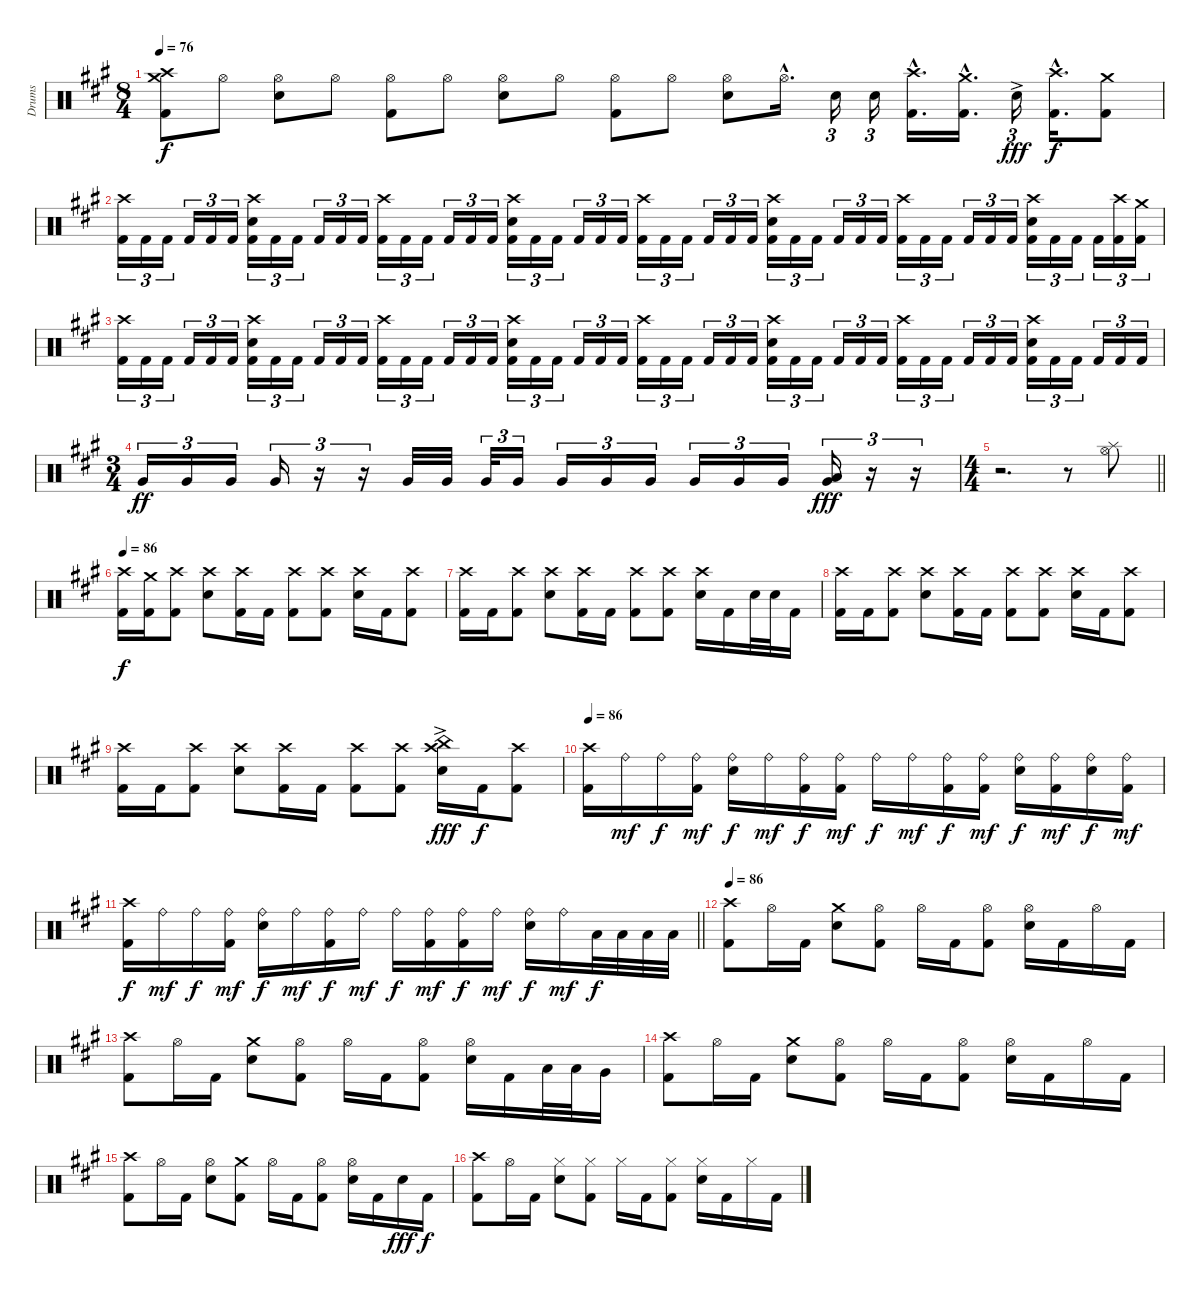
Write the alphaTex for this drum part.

\track ("Drums" "Drums") {instrument percussion}
\staff {score}
\articulation defaults
\ts (8 4)
\tempo 76
\clef neutral
\ks f#minor
("Crash high (hit)" "Crash medium (hit)" "Kick (hit) 2").8{dy f} "Hi-Hat (open)".8 ("Hi-Hat (open)" "Snare (hit) 2").8 "Hi-Hat (open)".8 ("Hi-Hat (open)" "Kick (hit) 2").8 "Hi-Hat (open)".8 ("Hi-Hat (open)" "Snare (hit) 2").8 "Hi-Hat (open)".8 ("Hi-Hat (open)" "Kick (hit) 2").8 "Hi-Hat (open)".8 ("Hi-Hat (open)" "Snare (hit) 2").8 "Hi-Hat (open)"{hac}.16{d} "Snare (hit) 2".16{tu (3 2)} "Snare (hit) 2".16{tu (3 2)} ("Crash high (hit)"{hac} "Kick (hit) 2"{hac}).16{d} ("Crash medium (hit)"{hac} "Kick (hit) 2"{hac}).16{d} "Snare (hit) 2"{ac}.16{tu (3 2) dy fff} ("Crash high (hit)"{hac} "Kick (hit) 2"{hac}).16{d dy f} ("Crash medium (hit)" "Kick (hit) 2").8 |
("Crash high (hit)" "Kick (hit) 2").16{tu (3 2)} "Kick (hit) 2".16{tu (3 2)} "Kick (hit) 2".16{tu (3 2)} "Kick (hit) 2".16{tu (3 2)} "Kick (hit) 2".16{tu (3 2)} "Kick (hit) 2".16{tu (3 2)} ("Crash high (hit)" "Snare (hit) 2" "Kick (hit) 2").16{tu (3 2)} "Kick (hit) 2".16{tu (3 2)} "Kick (hit) 2".16{tu (3 2)} "Kick (hit) 2".16{tu (3 2)} "Kick (hit) 2".16{tu (3 2)} "Kick (hit) 2".16{tu (3 2)} ("Crash high (hit)" "Kick (hit) 2").16{tu (3 2)} "Kick (hit) 2".16{tu (3 2)} "Kick (hit) 2".16{tu (3 2)} "Kick (hit) 2".16{tu (3 2)} "Kick (hit) 2".16{tu (3 2)} "Kick (hit) 2".16{tu (3 2)} ("Crash high (hit)" "Snare (hit) 2" "Kick (hit) 2").16{tu (3 2)} "Kick (hit) 2".16{tu (3 2)} "Kick (hit) 2".16{tu (3 2)} "Kick (hit) 2".16{tu (3 2)} "Kick (hit) 2".16{tu (3 2)} "Kick (hit) 2".16{tu (3 2)} ("Crash high (hit)" "Kick (hit) 2").16{tu (3 2)} "Kick (hit) 2".16{tu (3 2)} "Kick (hit) 2".16{tu (3 2)} "Kick (hit) 2".16{tu (3 2)} "Kick (hit) 2".16{tu (3 2)} "Kick (hit) 2".16{tu (3 2)} ("Crash high (hit)" "Snare (hit) 2" "Kick (hit) 2").16{tu (3 2)} "Kick (hit) 2".16{tu (3 2)} "Kick (hit) 2".16{tu (3 2)} "Kick (hit) 2".16{tu (3 2)} "Kick (hit) 2".16{tu (3 2)} "Kick (hit) 2".16{tu (3 2)} ("Crash high (hit)" "Kick (hit) 2").16{tu (3 2)} "Kick (hit) 2".16{tu (3 2)} "Kick (hit) 2".16{tu (3 2)} "Kick (hit) 2".16{tu (3 2)} "Kick (hit) 2".16{tu (3 2)} "Kick (hit) 2".16{tu (3 2)} ("Crash high (hit)" "Snare (hit) 2" "Kick (hit) 2").16{tu (3 2)} "Kick (hit) 2".16{tu (3 2)} "Kick (hit) 2".16{tu (3 2)} "Kick (hit) 2".16{tu (3 2)} ("Crash high (hit)" "Kick (hit) 2").16{tu (3 2)} ("Crash medium (hit)" "Kick (hit) 2").16{tu (3 2)} |
("Crash high (hit)" "Kick (hit) 2").16{tu (3 2)} "Kick (hit) 2".16{tu (3 2)} "Kick (hit) 2".16{tu (3 2)} "Kick (hit) 2".16{tu (3 2)} "Kick (hit) 2".16{tu (3 2)} "Kick (hit) 2".16{tu (3 2)} ("Crash high (hit)" "Snare (hit) 2" "Kick (hit) 2").16{tu (3 2)} "Kick (hit) 2".16{tu (3 2)} "Kick (hit) 2".16{tu (3 2)} "Kick (hit) 2".16{tu (3 2)} "Kick (hit) 2".16{tu (3 2)} "Kick (hit) 2".16{tu (3 2)} ("Crash high (hit)" "Kick (hit) 2").16{tu (3 2)} "Kick (hit) 2".16{tu (3 2)} "Kick (hit) 2".16{tu (3 2)} "Kick (hit) 2".16{tu (3 2)} "Kick (hit) 2".16{tu (3 2)} "Kick (hit) 2".16{tu (3 2)} ("Crash high (hit)" "Snare (hit) 2" "Kick (hit) 2").16{tu (3 2)} "Kick (hit) 2".16{tu (3 2)} "Kick (hit) 2".16{tu (3 2)} "Kick (hit) 2".16{tu (3 2)} "Kick (hit) 2".16{tu (3 2)} "Kick (hit) 2".16{tu (3 2)} ("Crash high (hit)" "Kick (hit) 2").16{tu (3 2)} "Kick (hit) 2".16{tu (3 2)} "Kick (hit) 2".16{tu (3 2)} "Kick (hit) 2".16{tu (3 2)} "Kick (hit) 2".16{tu (3 2)} "Kick (hit) 2".16{tu (3 2)} ("Crash high (hit)" "Snare (hit) 2" "Kick (hit) 2").16{tu (3 2)} "Kick (hit) 2".16{tu (3 2)} "Kick (hit) 2".16{tu (3 2)} "Kick (hit) 2".16{tu (3 2)} "Kick (hit) 2".16{tu (3 2)} "Kick (hit) 2".16{tu (3 2)} ("Crash high (hit)" "Kick (hit) 2").16{tu (3 2)} "Kick (hit) 2".16{tu (3 2)} "Kick (hit) 2".16{tu (3 2)} "Kick (hit) 2".16{tu (3 2)} "Kick (hit) 2".16{tu (3 2)} "Kick (hit) 2".16{tu (3 2)} ("Crash high (hit)" "Snare (hit) 2" "Kick (hit) 2").16{tu (3 2)} "Kick (hit) 2".16{tu (3 2)} "Kick (hit) 2".16{tu (3 2)} "Kick (hit) 2".16{tu (3 2)} "Kick (hit) 2".16{tu (3 2)} "Kick (hit) 2".16{tu (3 2)} |
\ts (3 4)
"Very Low Tom (hit)".16{tu (3 2) dy ff} "Very Low Tom (hit)".16{tu (3 2)} "Very Low Tom (hit)".16{tu (3 2)} "Very Low Tom (hit)".16{tu (3 2)} r.16{tu (3 2)} r.16{tu (3 2)} "Very Low Tom (hit)".32 "Very Low Tom (hit)".32 "Very Low Tom (hit)".32{tu (3 2)} "Very Low Tom (hit)".16{tu (3 2)} "Very Low Tom (hit)".16{tu (3 2)} "Very Low Tom (hit)".16{tu (3 2)} "Very Low Tom (hit)".16{tu (3 2)} "Very Low Tom (hit)".16{tu (3 2)} "Very Low Tom (hit)".16{tu (3 2)} "Very Low Tom (hit)".16{tu (3 2)} ("Very Low Tom (hit)" "Low Floor Tom (hit)").16{tu (3 2) dy fff} r.16{tu (3 2)} r.16{tu (3 2)} |
\ts (4 4)
\barLineRight lightlight
r.2{d} r.8 ("Hi-Hat (open)" "Splash (hit)").8 |
\tempo 86
("Crash high (hit)" "Kick (hit) 2").16{dy f} ("Crash medium (hit)" "Kick (hit) 2").16 ("Crash high (hit)" "Kick (hit) 2").8 ("Crash high (hit)" "Snare (hit) 2").8 ("Crash high (hit)" "Kick (hit) 2").16 "Kick (hit) 2".16 ("Crash high (hit)" "Kick (hit) 2").8 ("Crash high (hit)" "Kick (hit) 2").8 ("Crash high (hit)" "Snare (hit) 2").16 "Kick (hit) 2".16 ("Crash high (hit)" "Kick (hit) 2").8 |
("Crash high (hit)" "Kick (hit) 2").16 "Kick (hit) 2".16 ("Crash high (hit)" "Kick (hit) 2").8 ("Crash high (hit)" "Snare (hit) 2").8 ("Crash high (hit)" "Kick (hit) 2").16 "Kick (hit) 2".16 ("Crash high (hit)" "Kick (hit) 2").8 ("Crash high (hit)" "Kick (hit) 2").8 ("Crash high (hit)" "Snare (hit) 2").16 "Kick (hit) 2".16 "Snare (hit) 2".32 "Snare (hit) 2".32 "Kick (hit) 2".16 |
("Crash high (hit)" "Kick (hit) 2").16 "Kick (hit) 2".16 ("Crash high (hit)" "Kick (hit) 2").8 ("Crash high (hit)" "Snare (hit) 2").8 ("Crash high (hit)" "Kick (hit) 2").16 "Kick (hit) 2".16 ("Crash high (hit)" "Kick (hit) 2").8 ("Crash high (hit)" "Kick (hit) 2").8 ("Crash high (hit)" "Snare (hit) 2").16 "Kick (hit) 2".16 ("Crash high (hit)" "Kick (hit) 2").8 |
("Crash high (hit)" "Kick (hit) 2").16 "Kick (hit) 2".16 ("Crash high (hit)" "Kick (hit) 2").8 ("Crash high (hit)" "Snare (hit) 2").8 ("Crash high (hit)" "Kick (hit) 2").16 "Kick (hit) 2".16 ("Crash high (hit)" "Kick (hit) 2").8 ("Crash high (hit)" "Kick (hit) 2").8 ("China (hit)" "Crash high (hit)" "Snare (hit) 2"{ac}).16{dy fff} "Kick (hit) 2".16{dy f} ("Crash high (hit)" "Kick (hit) 2").8 |
\tempo 86
("Crash high (hit)" "Kick (hit) 2").16 "Ride (bell)".16{dy mf} "Ride (bell)".16{dy f} ("Ride (bell)" "Kick (hit) 2").16{dy mf} ("Ride (bell)" "Snare (hit) 2").16{dy f} "Ride (bell)".16{dy mf} ("Ride (bell)" "Kick (hit) 2").16{dy f} ("Ride (bell)" "Kick (hit) 2").16{dy mf} "Ride (bell)".16{dy f} "Ride (bell)".16{dy mf} ("Ride (bell)" "Kick (hit) 2").16{dy f} ("Ride (bell)" "Kick (hit) 2").16{dy mf} ("Ride (bell)" "Snare (hit) 2").16{dy f} ("Ride (bell)" "Kick (hit) 2").16{dy mf} ("Ride (bell)" "Snare (hit) 2").16{dy f} ("Ride (bell)" "Kick (hit) 2").16{dy mf} |
\barLineRight lightlight
("Crash high (hit)" "Kick (hit) 2").16{dy f} "Ride (bell)".16{dy mf} "Ride (bell)".16{dy f} ("Ride (bell)" "Kick (hit) 2").16{dy mf} ("Ride (bell)" "Snare (hit) 2").16{dy f} "Ride (bell)".16{dy mf} ("Ride (bell)" "Kick (hit) 2").16{dy f} "Ride (bell)".16{dy mf} "Ride (bell)".16{dy f} ("Ride (bell)" "Kick (hit) 2").16{dy mf} ("Ride (bell)" "Kick (hit) 2").16{dy f} "Ride (bell)".16{dy mf} ("Ride (bell)" "Snare (hit) 2").16{dy f} "Ride (bell)".16{dy mf} "Low Tom (hit)".32{dy f} "Low Tom (hit)".32 "Low Tom (hit)".32 "Low Tom (hit)".32 |
\tempo 86
("Crash high (hit)" "Kick (hit) 2").8 "Hi-Hat (open)".16 "Kick (hit) 2".16 ("Crash medium (hit)" "Snare (hit) 2").8 ("Hi-Hat (open)" "Kick (hit) 2").8 "Hi-Hat (open)".16 "Kick (hit) 2".16 ("Hi-Hat (open)" "Kick (hit) 2").8 ("Hi-Hat (open)" "Snare (hit) 2").16 "Kick (hit) 2".16 "Hi-Hat (open)".16 "Kick (hit) 2".16 |
("Crash high (hit)" "Kick (hit) 2").8 "Hi-Hat (open)".16 "Kick (hit) 2".16 ("Crash medium (hit)" "Snare (hit) 2").8 ("Hi-Hat (open)" "Kick (hit) 2").8 "Hi-Hat (open)".16 "Kick (hit) 2".16 ("Hi-Hat (open)" "Kick (hit) 2").8 ("Hi-Hat (open)" "Snare (hit) 2").16 "Kick (hit) 2".16 "Low Tom (hit)".32 "Low Tom (hit)".32 "Very Low Tom (hit)".16 |
("Crash high (hit)" "Kick (hit) 2").8 "Hi-Hat (open)".16 "Kick (hit) 2".16 ("Crash medium (hit)" "Snare (hit) 2").8 ("Hi-Hat (open)" "Kick (hit) 2").8 "Hi-Hat (open)".16 "Kick (hit) 2".16 ("Hi-Hat (open)" "Kick (hit) 2").8 ("Hi-Hat (open)" "Snare (hit) 2").16 "Kick (hit) 2".16 "Hi-Hat (open)".16 "Kick (hit) 2".16 |
("Crash high (hit)" "Kick (hit) 2").8 "Hi-Hat (open)".16 "Kick (hit) 2".16 ("Hi-Hat (open)" "Snare (hit) 2").8 ("Crash medium (hit)" "Kick (hit) 2").8 "Hi-Hat (open)".16 "Kick (hit) 2".16 ("Hi-Hat (open)" "Kick (hit) 2").8 ("Hi-Hat (open)" "Snare (hit) 2").16 "Kick (hit) 2".16 "Snare (hit) 2".16{dy fff} "Kick (hit) 2".16{dy f} |
("Crash high (hit)" "Kick (hit) 2").8 "Hi-Hat (open)".16 "Kick (hit) 2".16 ("Hi-Hat (closed)" "Snare (hit) 2").8 ("Hi-Hat (closed)" "Kick (hit) 2").8 "Hi-Hat (closed)".16 "Kick (hit) 2".16 ("Hi-Hat (closed)" "Kick (hit) 2").8 ("Hi-Hat (closed)" "Snare (hit) 2").16 "Kick (hit) 2".16 "Hi-Hat (closed)".16 "Kick (hit) 2".16
